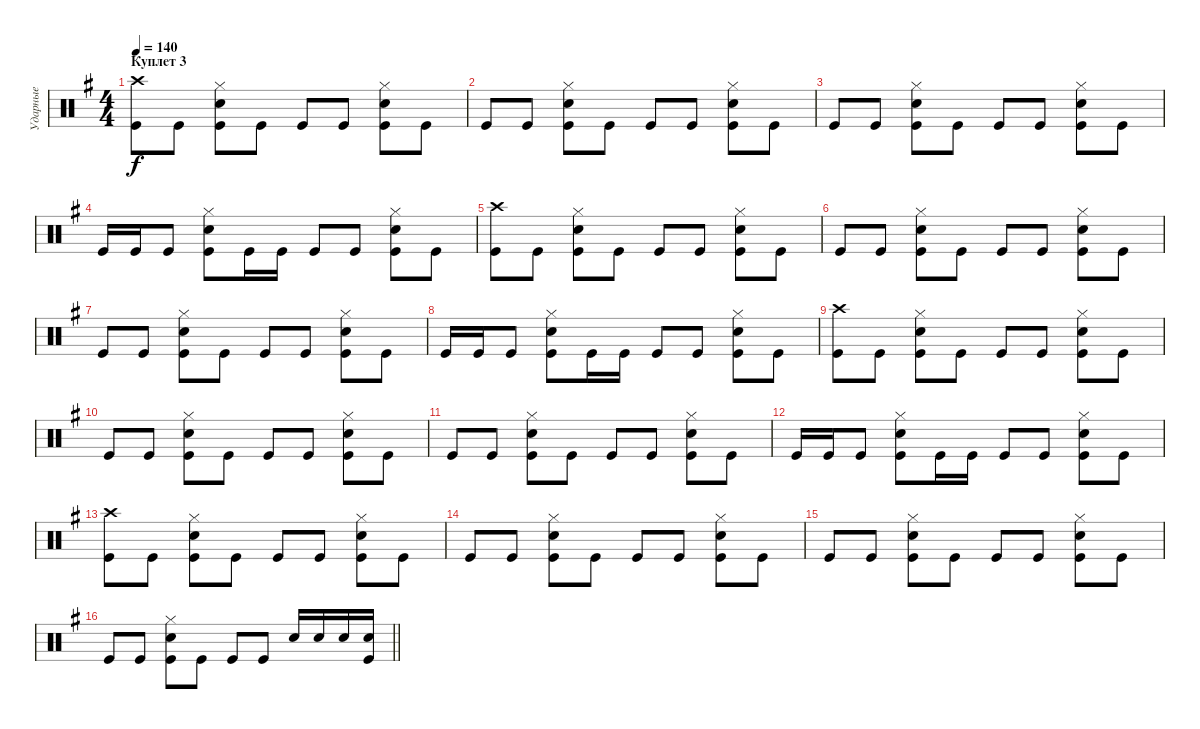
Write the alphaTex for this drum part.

\track ("Ударные" "Ударные") {instrument percussion}
\staff {score}
\articulation defaults
\ts (4 4)
\section ("" "Куплет 3")
\tempo 140
\clef neutral
\ks g
("Kick (hit)" "Crash high (hit)").8{dy f} "Kick (hit)".8 ("Kick (hit)" "Snare (hit) 2" "Hi-Hat (closed)").8 "Kick (hit)".8 "Kick (hit)".8 "Kick (hit)".8 ("Kick (hit)" "Snare (hit) 2" "Hi-Hat (closed)").8 "Kick (hit)".8 |
"Kick (hit)".8 "Kick (hit)".8 ("Kick (hit)" "Snare (hit) 2" "Hi-Hat (closed)").8 "Kick (hit)".8 "Kick (hit)".8 "Kick (hit)".8 ("Kick (hit)" "Snare (hit) 2" "Hi-Hat (closed)").8 "Kick (hit)".8 |
"Kick (hit)".8 "Kick (hit)".8 ("Kick (hit)" "Snare (hit) 2" "Hi-Hat (closed)").8 "Kick (hit)".8 "Kick (hit)".8 "Kick (hit)".8 ("Kick (hit)" "Snare (hit) 2" "Hi-Hat (closed)").8 "Kick (hit)".8 |
"Kick (hit)".16 "Kick (hit)".16 "Kick (hit)".8 ("Kick (hit)" "Snare (hit) 2" "Hi-Hat (closed)").8 "Kick (hit)".16 "Kick (hit)".16 "Kick (hit)".8 "Kick (hit)".8 ("Kick (hit)" "Snare (hit) 2" "Hi-Hat (closed)").8 "Kick (hit)".8 |
("Kick (hit)" "Crash high (hit)").8 "Kick (hit)".8 ("Kick (hit)" "Snare (hit) 2" "Hi-Hat (closed)").8 "Kick (hit)".8 "Kick (hit)".8 "Kick (hit)".8 ("Kick (hit)" "Snare (hit) 2" "Hi-Hat (closed)").8 "Kick (hit)".8 |
"Kick (hit)".8 "Kick (hit)".8 ("Kick (hit)" "Snare (hit) 2" "Hi-Hat (closed)").8 "Kick (hit)".8 "Kick (hit)".8 "Kick (hit)".8 ("Kick (hit)" "Snare (hit) 2" "Hi-Hat (closed)").8 "Kick (hit)".8 |
"Kick (hit)".8 "Kick (hit)".8 ("Kick (hit)" "Snare (hit) 2" "Hi-Hat (closed)").8 "Kick (hit)".8 "Kick (hit)".8 "Kick (hit)".8 ("Kick (hit)" "Snare (hit) 2" "Hi-Hat (closed)").8 "Kick (hit)".8 |
"Kick (hit)".16 "Kick (hit)".16 "Kick (hit)".8 ("Kick (hit)" "Snare (hit) 2" "Hi-Hat (closed)").8 "Kick (hit)".16 "Kick (hit)".16 "Kick (hit)".8 "Kick (hit)".8 ("Kick (hit)" "Snare (hit) 2" "Hi-Hat (closed)").8 "Kick (hit)".8 |
("Kick (hit)" "Crash high (hit)").8 "Kick (hit)".8 ("Kick (hit)" "Snare (hit) 2" "Hi-Hat (closed)").8 "Kick (hit)".8 "Kick (hit)".8 "Kick (hit)".8 ("Kick (hit)" "Snare (hit) 2" "Hi-Hat (closed)").8 "Kick (hit)".8 |
"Kick (hit)".8 "Kick (hit)".8 ("Kick (hit)" "Snare (hit) 2" "Hi-Hat (closed)").8 "Kick (hit)".8 "Kick (hit)".8 "Kick (hit)".8 ("Kick (hit)" "Snare (hit) 2" "Hi-Hat (closed)").8 "Kick (hit)".8 |
"Kick (hit)".8 "Kick (hit)".8 ("Kick (hit)" "Snare (hit) 2" "Hi-Hat (closed)").8 "Kick (hit)".8 "Kick (hit)".8 "Kick (hit)".8 ("Kick (hit)" "Snare (hit) 2" "Hi-Hat (closed)").8 "Kick (hit)".8 |
"Kick (hit)".16 "Kick (hit)".16 "Kick (hit)".8 ("Kick (hit)" "Snare (hit) 2" "Hi-Hat (closed)").8 "Kick (hit)".16 "Kick (hit)".16 "Kick (hit)".8 "Kick (hit)".8 ("Kick (hit)" "Snare (hit) 2" "Hi-Hat (closed)").8 "Kick (hit)".8 |
("Kick (hit)" "Crash high (hit)").8 "Kick (hit)".8 ("Kick (hit)" "Snare (hit) 2" "Hi-Hat (closed)").8 "Kick (hit)".8 "Kick (hit)".8 "Kick (hit)".8 ("Kick (hit)" "Snare (hit) 2" "Hi-Hat (closed)").8 "Kick (hit)".8 |
"Kick (hit)".8 "Kick (hit)".8 ("Kick (hit)" "Snare (hit) 2" "Hi-Hat (closed)").8 "Kick (hit)".8 "Kick (hit)".8 "Kick (hit)".8 ("Kick (hit)" "Snare (hit) 2" "Hi-Hat (closed)").8 "Kick (hit)".8 |
"Kick (hit)".8 "Kick (hit)".8 ("Kick (hit)" "Snare (hit) 2" "Hi-Hat (closed)").8 "Kick (hit)".8 "Kick (hit)".8 "Kick (hit)".8 ("Kick (hit)" "Snare (hit) 2" "Hi-Hat (closed)").8 "Kick (hit)".8 |
\barLineRight lightlight "Kick (hit)".8 "Kick (hit)".8
("Kick (hit)" "Snare (hit) 2" "Hi-Hat (closed)").8 "Kick (hit)".8 "Kick (hit)".8 "Kick (hit)".8 "Snare (hit) 2".16 "Snare (hit) 2".16 "Snare (hit) 2".16 ("Kick (hit)" "Snare (hit) 2").16
